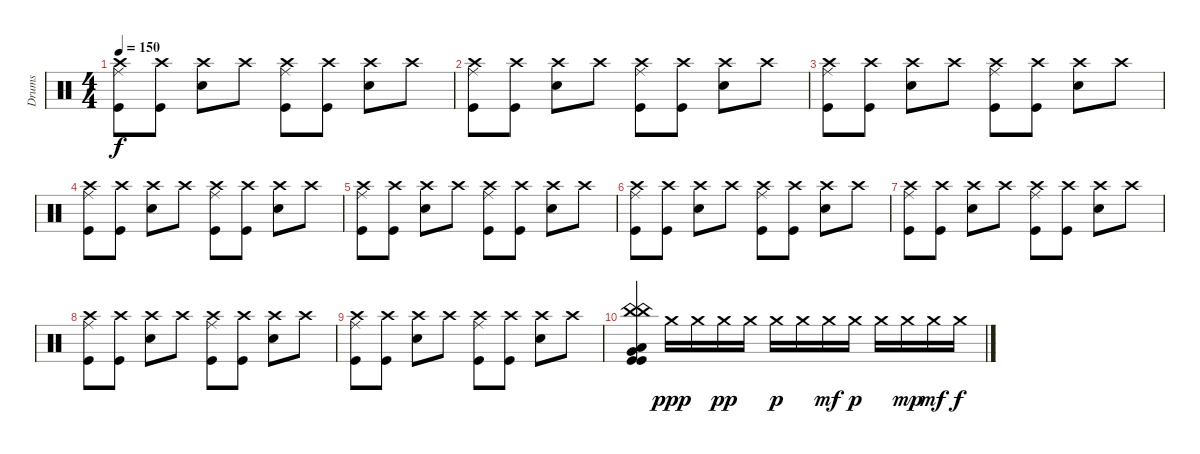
\track ("Drums" "Drums") {instrument percussion}
\staff {score}
\articulation defaults
\ts (4 4)
\tempo 150
\clef neutral
\ks c
("Crash high (hit)" "Ride (middle)" "Kick (hit)").8{dy f} ("Crash high (hit)" "Kick (hit)").8 ("Crash high (hit)" "Snare (hit) 2").8 "Crash high (hit)".8 ("Crash high (hit)" "Ride (middle)" "Kick (hit)").8 ("Crash high (hit)" "Kick (hit)").8 ("Crash high (hit)" "Snare (hit) 2").8 "Crash high (hit)".8 |
("Crash high (hit)" "Ride (middle)" "Kick (hit)").8 ("Crash high (hit)" "Kick (hit)").8 ("Crash high (hit)" "Snare (hit) 2").8 "Crash high (hit)".8 ("Crash high (hit)" "Ride (middle)" "Kick (hit)").8 ("Crash high (hit)" "Kick (hit)").8 ("Crash high (hit)" "Snare (hit) 2").8 "Crash high (hit)".8 |
("Crash high (hit)" "Ride (middle)" "Kick (hit)").8 ("Crash high (hit)" "Kick (hit)").8 ("Crash high (hit)" "Snare (hit) 2").8 "Crash high (hit)".8 ("Crash high (hit)" "Ride (middle)" "Kick (hit)").8 ("Crash high (hit)" "Kick (hit)").8 ("Crash high (hit)" "Snare (hit) 2").8 "Crash high (hit)".8 |
("Crash high (hit)" "Ride (middle)" "Kick (hit)").8 ("Crash high (hit)" "Kick (hit)").8 ("Crash high (hit)" "Snare (hit) 2").8 "Crash high (hit)".8 ("Crash high (hit)" "Ride (middle)" "Kick (hit)").8 ("Crash high (hit)" "Kick (hit)").8 ("Crash high (hit)" "Snare (hit) 2").8 "Crash high (hit)".8 |
("Crash high (hit)" "Ride (middle)" "Kick (hit)").8 ("Crash high (hit)" "Kick (hit)").8 ("Crash high (hit)" "Snare (hit) 2").8 "Crash high (hit)".8 ("Crash high (hit)" "Ride (middle)" "Kick (hit)").8 ("Crash high (hit)" "Kick (hit)").8 ("Crash high (hit)" "Snare (hit) 2").8 "Crash high (hit)".8 |
("Crash high (hit)" "Ride (middle)" "Kick (hit)").8 ("Crash high (hit)" "Kick (hit)").8 ("Crash high (hit)" "Snare (hit) 2").8 "Crash high (hit)".8 ("Crash high (hit)" "Ride (middle)" "Kick (hit)").8 ("Crash high (hit)" "Kick (hit)").8 ("Crash high (hit)" "Snare (hit) 2").8 "Crash high (hit)".8 |
("Crash high (hit)" "Ride (middle)" "Kick (hit)").8 ("Crash high (hit)" "Kick (hit)").8 ("Crash high (hit)" "Snare (hit) 2").8 "Crash high (hit)".8 ("Crash high (hit)" "Ride (middle)" "Kick (hit)").8 ("Crash high (hit)" "Kick (hit)").8 ("Crash high (hit)" "Snare (hit) 2").8 "Crash high (hit)".8 |
("Crash high (hit)" "Ride (middle)" "Kick (hit)").8 ("Crash high (hit)" "Kick (hit)").8 ("Crash high (hit)" "Snare (hit) 2").8 "Crash high (hit)".8 ("Crash high (hit)" "Ride (middle)" "Kick (hit)").8 ("Crash high (hit)" "Kick (hit)").8 ("Crash high (hit)" "Snare (hit) 2").8 "Crash high (hit)".8 |
("Crash high (hit)" "Ride (middle)" "Kick (hit)").8 ("Crash high (hit)" "Kick (hit)").8 ("Crash high (hit)" "Snare (hit) 2").8 "Crash high (hit)".8 ("Crash high (hit)" "Ride (middle)" "Kick (hit)").8 ("Crash high (hit)" "Kick (hit)").8 ("Crash high (hit)" "Snare (hit) 2").8 "Crash high (hit)".8 |
("China (hit)" "China (hit)" "Very Low Tom (hit)" "Kick (hit)" "Kick (hit)" "Low Floor Tom (hit)").4 "Crash medium (hit)".16{dy ppp} "Crash medium (hit)".16 "Crash medium (hit)".16{dy pp} "Crash medium (hit)".16 "Crash medium (hit)".16{dy p} "Crash medium (hit)".16 "Crash medium (hit)".16{dy mf} "Crash medium (hit)".16{dy p} "Crash medium (hit)".16 "Crash medium (hit)".16{dy mp} "Crash medium (hit)".16{dy mf} "Crash medium (hit)".16{dy f}
